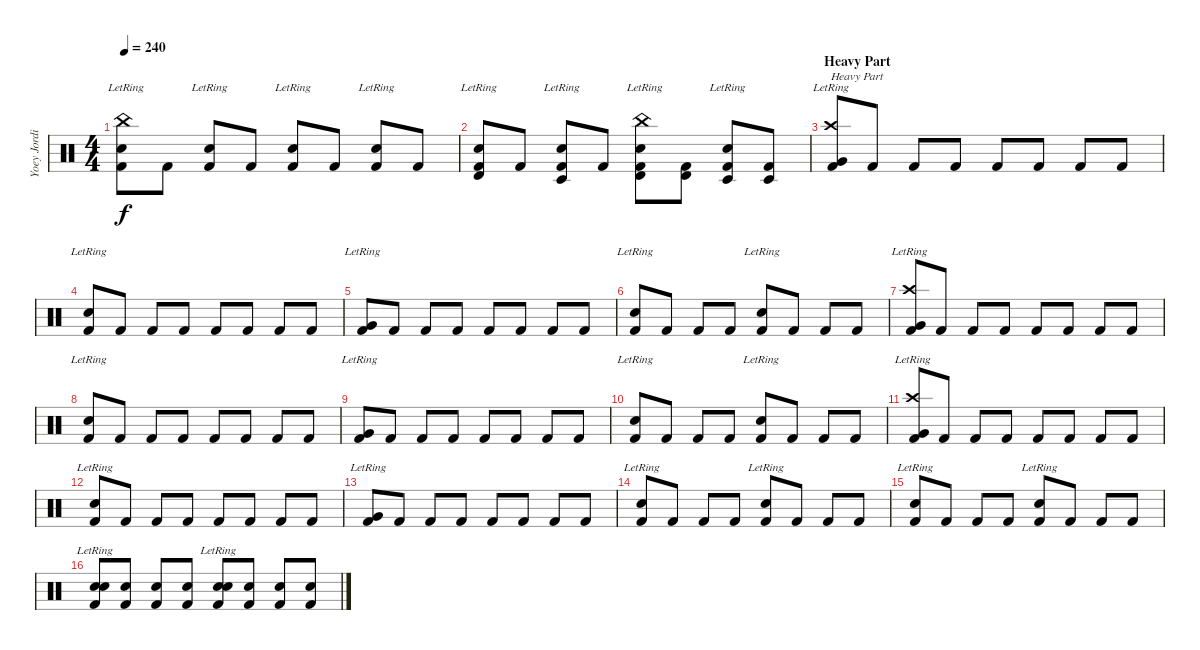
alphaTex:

\track ("Yoey Jordison" "Yoey Jordi") {instrument percussion}
\staff {score}
\articulation defaults
\ts (4 4)
\tempo 240
\clef neutral
\ks c
("China (hit)" "Kick (hit) 2" "Electric Snare (hit)"{lr}).8{dy f} "Kick (hit) 2".8 ("Kick (hit) 2" "Electric Snare (hit)"{lr}).8 "Kick (hit) 2".8 ("Kick (hit) 2" "Electric Snare (hit)"{lr}).8 "Kick (hit) 2".8 ("Kick (hit) 2" "Electric Snare (hit)"{lr}).8 "Kick (hit) 2".8 |
("Timbale high (hit)" "Kick (hit) 2" "Electric Snare (hit)"{lr}).8 "Kick (hit) 2".8 ("Timbale low (hit)" "Kick (hit) 2" "Electric Snare (hit)"{lr}).8 "Kick (hit) 2".8 ("China (hit)" "Timbale high (hit)" "Kick (hit) 2" "Electric Snare (hit)"{lr}).8 ("Timbale high (hit)" "Kick (hit) 2").8 ("Timbale low (hit)" "Kick (hit) 2" "Electric Snare (hit)"{lr}).8 ("Timbale low (hit)" "Kick (hit) 2").8 |
\section ("" "Heavy Part")
("Crash high (hit)" "Kick (hit) 2" "Very Low Tom (hit)"{lr}).8{txt "Heavy Part"} "Kick (hit) 2".8 "Kick (hit) 2".8 "Kick (hit) 2".8 "Kick (hit) 2".8 "Kick (hit) 2".8 "Kick (hit) 2".8 "Kick (hit) 2".8 |
("Kick (hit) 2" "Snare (hit) 2"{lr}).8 "Kick (hit) 2".8 "Kick (hit) 2".8 "Kick (hit) 2".8 "Kick (hit) 2".8 "Kick (hit) 2".8 "Kick (hit) 2".8 "Kick (hit) 2".8 |
("Kick (hit) 2" "Very Low Tom (hit)"{lr}).8 "Kick (hit) 2".8 "Kick (hit) 2".8 "Kick (hit) 2".8 "Kick (hit) 2".8 "Kick (hit) 2".8 "Kick (hit) 2".8 "Kick (hit) 2".8 |
("Kick (hit) 2" "Snare (hit) 2"{lr}).8 "Kick (hit) 2".8 "Kick (hit) 2".8 "Kick (hit) 2".8 ("Kick (hit) 2" "Snare (hit) 2"{lr}).8 "Kick (hit) 2".8 "Kick (hit) 2".8 "Kick (hit) 2".8 |
("Crash high (hit)" "Kick (hit) 2" "Very Low Tom (hit)"{lr}).8 "Kick (hit) 2".8 "Kick (hit) 2".8 "Kick (hit) 2".8 "Kick (hit) 2".8 "Kick (hit) 2".8 "Kick (hit) 2".8 "Kick (hit) 2".8 |
("Kick (hit) 2" "Snare (hit) 2"{lr}).8 "Kick (hit) 2".8 "Kick (hit) 2".8 "Kick (hit) 2".8 "Kick (hit) 2".8 "Kick (hit) 2".8 "Kick (hit) 2".8 "Kick (hit) 2".8 |
("Kick (hit) 2" "Very Low Tom (hit)"{lr}).8 "Kick (hit) 2".8 "Kick (hit) 2".8 "Kick (hit) 2".8 "Kick (hit) 2".8 "Kick (hit) 2".8 "Kick (hit) 2".8 "Kick (hit) 2".8 |
("Kick (hit) 2" "Snare (hit) 2"{lr}).8 "Kick (hit) 2".8 "Kick (hit) 2".8 "Kick (hit) 2".8 ("Kick (hit) 2" "Snare (hit) 2"{lr}).8 "Kick (hit) 2".8 "Kick (hit) 2".8 "Kick (hit) 2".8 |
("Crash high (hit)" "Kick (hit) 2" "Very Low Tom (hit)"{lr}).8 "Kick (hit) 2".8 "Kick (hit) 2".8 "Kick (hit) 2".8 "Kick (hit) 2".8 "Kick (hit) 2".8 "Kick (hit) 2".8 "Kick (hit) 2".8 |
("Kick (hit) 2" "Snare (hit) 2"{lr}).8 "Kick (hit) 2".8 "Kick (hit) 2".8 "Kick (hit) 2".8 "Kick (hit) 2".8 "Kick (hit) 2".8 "Kick (hit) 2".8 "Kick (hit) 2".8 |
("Kick (hit) 2" "Very Low Tom (hit)"{lr}).8 "Kick (hit) 2".8 "Kick (hit) 2".8 "Kick (hit) 2".8 "Kick (hit) 2".8 "Kick (hit) 2".8 "Kick (hit) 2".8 "Kick (hit) 2".8 |
("Kick (hit) 2" "Snare (hit) 2"{lr}).8 "Kick (hit) 2".8 "Kick (hit) 2".8 "Kick (hit) 2".8 ("Kick (hit) 2" "Snare (hit) 2"{lr}).8 "Kick (hit) 2".8 "Kick (hit) 2".8 "Kick (hit) 2".8 |
("Kick (hit) 2" "Electric Snare (hit)"{lr}).8 "Kick (hit) 2".8 "Kick (hit) 2".8 "Kick (hit) 2".8 ("Kick (hit) 2" "Electric Snare (hit)"{lr}).8 "Kick (hit) 2".8 "Kick (hit) 2".8 "Kick (hit) 2".8 |
("Snare (hit) 2" "Kick (hit) 2" "Electric Snare (hit)"{lr}).8 ("Snare (hit) 2" "Kick (hit) 2").8 ("Snare (hit) 2" "Kick (hit) 2").8 ("Snare (hit) 2" "Kick (hit) 2").8 ("Snare (hit) 2" "Kick (hit) 2" "Electric Snare (hit)"{lr}).8 ("Snare (hit) 2" "Kick (hit) 2").8 ("Snare (hit) 2" "Kick (hit) 2").8 ("Snare (hit) 2" "Kick (hit) 2").8
